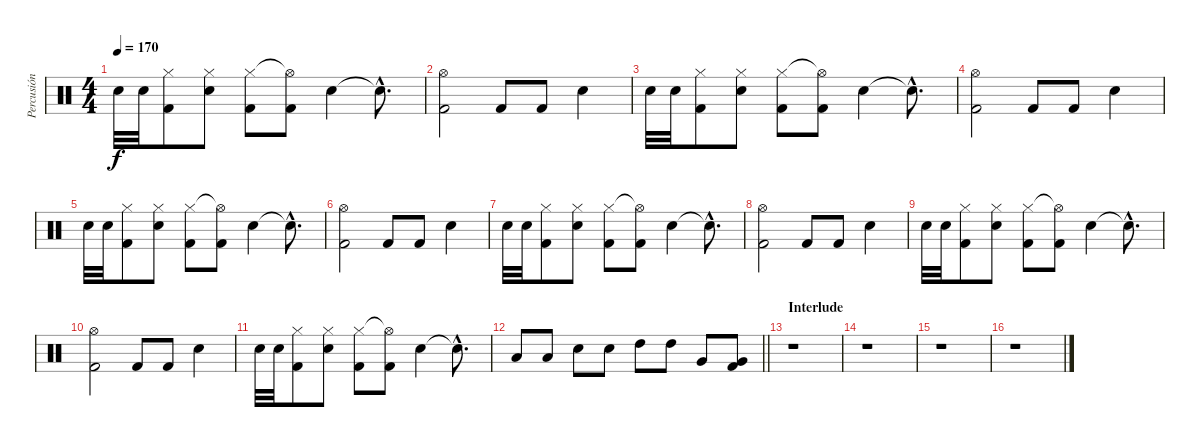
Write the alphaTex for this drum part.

\track ("Percusión" "Percusión") {instrument percussion}
\staff {score}
\articulation defaults
\ts (4 4)
\tempo 170
\clef neutral
\ks c "Electric Snare (hit)".32{dy f} "Electric Snare (hit)".32
("Hi-Hat (closed)" "Kick (hit) 2").8 ("Hi-Hat (closed)" "Electric Snare (hit)").8 ("Hi-Hat (closed)" "Kick (hit) 2").8 ("Hi-Hat (open)"{t} "Kick (hit) 2").8 "Electric Snare (hit)".4 "Snare (hit)"{hac t}.8{d} |
("Hi-Hat (open)" "Kick (hit) 2").2 "Kick (hit) 2".8 "Kick (hit) 2".8 "Electric Snare (hit)".4 |
"Electric Snare (hit)".32 "Electric Snare (hit)".32 ("Hi-Hat (closed)" "Kick (hit) 2").8 ("Hi-Hat (closed)" "Electric Snare (hit)").8 ("Hi-Hat (closed)" "Kick (hit) 2").8 ("Hi-Hat (open)"{t} "Kick (hit) 2").8 "Electric Snare (hit)".4 "Snare (hit)"{hac t}.8{d} |
("Hi-Hat (open)" "Kick (hit) 2").2 "Kick (hit) 2".8 "Kick (hit) 2".8 "Electric Snare (hit)".4 |
"Electric Snare (hit)".32 "Electric Snare (hit)".32 ("Hi-Hat (closed)" "Kick (hit) 2").8 ("Hi-Hat (closed)" "Electric Snare (hit)").8 ("Hi-Hat (closed)" "Kick (hit) 2").8 ("Hi-Hat (open)"{t} "Kick (hit) 2").8 "Electric Snare (hit)".4 "Snare (hit)"{hac t}.8{d} |
("Hi-Hat (open)" "Kick (hit) 2").2 "Kick (hit) 2".8 "Kick (hit) 2".8 "Electric Snare (hit)".4 |
"Electric Snare (hit)".32 "Electric Snare (hit)".32 ("Hi-Hat (closed)" "Kick (hit) 2").8 ("Hi-Hat (closed)" "Electric Snare (hit)").8 ("Hi-Hat (closed)" "Kick (hit) 2").8 ("Hi-Hat (open)"{t} "Kick (hit) 2").8 "Electric Snare (hit)".4 "Snare (hit)"{hac t}.8{d} |
("Hi-Hat (open)" "Kick (hit) 2").2 "Kick (hit) 2".8 "Kick (hit) 2".8 "Electric Snare (hit)".4 |
"Electric Snare (hit)".32 "Electric Snare (hit)".32 ("Hi-Hat (closed)" "Kick (hit) 2").8 ("Hi-Hat (closed)" "Electric Snare (hit)").8 ("Hi-Hat (closed)" "Kick (hit) 2").8 ("Hi-Hat (open)"{t} "Kick (hit) 2").8 "Electric Snare (hit)".4 "Snare (hit)"{hac t}.8{d} |
("Hi-Hat (open)" "Kick (hit) 2").2 "Kick (hit) 2".8 "Kick (hit) 2".8 "Electric Snare (hit)".4 |
"Electric Snare (hit)".32 "Electric Snare (hit)".32 ("Hi-Hat (closed)" "Kick (hit) 2").8 ("Hi-Hat (closed)" "Electric Snare (hit)").8 ("Hi-Hat (closed)" "Kick (hit) 2").8 ("Hi-Hat (open)"{t} "Kick (hit) 2").8 "Electric Snare (hit)".4 "Snare (hit)"{hac t}.8{d} |
\barLineRight lightlight "Low Floor Tom (hit)".8 "Low Floor Tom (hit)".8 "Electric Snare (hit)".8 "Electric Snare (hit)".8 "High Tom (hit)".8 "High Tom (hit)".8 "Very Low Tom (hit)".8
("Very Low Tom (hit)" "Kick (hit) 2").8 |
\section ("" "Interlude")
r.1 |
r.1 |
r.1 |
r.1
